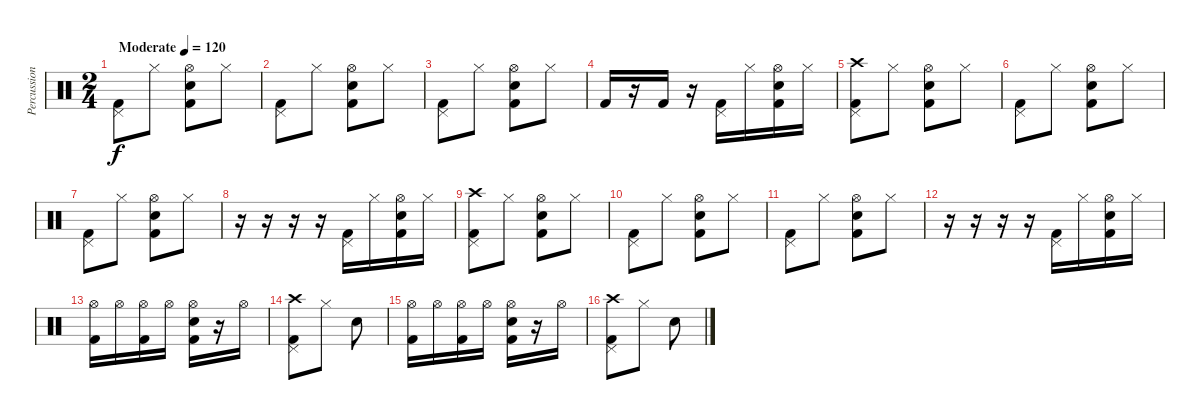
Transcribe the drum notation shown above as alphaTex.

\track ("Percussion" "Percussion") {instrument percussion}
\staff {score}
\articulation defaults
\ts (2 4)
\tempo (120 "Moderate")
\clef neutral
\ks c
("Pedal Hi-Hat (hit)" "Kick (hit) 2").8{dy f} "Hi-Hat (closed)".8 ("Electric Snare (hit)" "Hi-Hat (open)" "Kick (hit) 2").8 "Hi-Hat (closed)".8 |
("Pedal Hi-Hat (hit)" "Kick (hit) 2").8 "Hi-Hat (closed)".8 ("Electric Snare (hit)" "Hi-Hat (open)" "Kick (hit) 2").8 "Hi-Hat (closed)".8 |
("Pedal Hi-Hat (hit)" "Kick (hit) 2").8 "Hi-Hat (closed)".8 ("Electric Snare (hit)" "Hi-Hat (open)" "Kick (hit) 2").8 "Hi-Hat (closed)".8 |
"Kick (hit) 2".16 r.16 "Kick (hit) 2".16 r.16 ("Pedal Hi-Hat (hit)" "Kick (hit) 2").16 "Hi-Hat (closed)".16 ("Electric Snare (hit)" "Hi-Hat (open)" "Kick (hit) 2").16 "Hi-Hat (closed)".16 |
("Crash high (hit)" "Pedal Hi-Hat (hit)" "Kick (hit) 2").8 "Hi-Hat (closed)".8 ("Electric Snare (hit)" "Hi-Hat (open)" "Kick (hit) 2").8 "Hi-Hat (closed)".8 |
("Pedal Hi-Hat (hit)" "Kick (hit) 2").8 "Hi-Hat (closed)".8 ("Electric Snare (hit)" "Hi-Hat (open)" "Kick (hit) 2").8 "Hi-Hat (closed)".8 |
("Pedal Hi-Hat (hit)" "Kick (hit) 2").8 "Hi-Hat (closed)".8 ("Electric Snare (hit)" "Hi-Hat (open)" "Kick (hit) 2").8 "Hi-Hat (closed)".8 |
r.16 r.16 r.16 r.16 ("Pedal Hi-Hat (hit)" "Kick (hit) 2").16 "Hi-Hat (closed)".16 ("Electric Snare (hit)" "Hi-Hat (open)" "Kick (hit) 2").16 "Hi-Hat (closed)".16 |
("Crash high (hit)" "Pedal Hi-Hat (hit)" "Kick (hit) 2").8 "Hi-Hat (closed)".8 ("Electric Snare (hit)" "Hi-Hat (open)" "Kick (hit) 2").8 "Hi-Hat (closed)".8 |
("Pedal Hi-Hat (hit)" "Kick (hit) 2").8 "Hi-Hat (closed)".8 ("Electric Snare (hit)" "Hi-Hat (open)" "Kick (hit) 2").8 "Hi-Hat (closed)".8 |
("Pedal Hi-Hat (hit)" "Kick (hit) 2").8 "Hi-Hat (closed)".8 ("Electric Snare (hit)" "Hi-Hat (open)" "Kick (hit) 2").8 "Hi-Hat (closed)".8 |
r.16 r.16 r.16 r.16 ("Pedal Hi-Hat (hit)" "Kick (hit) 2").16 "Hi-Hat (closed)".16 ("Electric Snare (hit)" "Hi-Hat (open)" "Kick (hit) 2").16 "Hi-Hat (closed)".16 |
("Kick (hit) 2" "Hi-Hat (open)").16 "Hi-Hat (open)".16 ("Kick (hit) 2" "Hi-Hat (open)").16 "Hi-Hat (open)".16 ("Electric Snare (hit)" "Kick (hit) 2" "Hi-Hat (open)").16 r.16 "Hi-Hat (open)".16 |
("Crash high (hit)" "Pedal Hi-Hat (hit)" "Kick (hit) 2").8 "Hi-Hat (closed)".8 "Electric Snare (hit)".8 |
("Kick (hit) 2" "Hi-Hat (open)").16 "Hi-Hat (open)".16 ("Kick (hit) 2" "Hi-Hat (open)").16 "Hi-Hat (open)".16 ("Electric Snare (hit)" "Kick (hit) 2" "Hi-Hat (open)").16 r.16 "Hi-Hat (open)".16 |
("Crash high (hit)" "Pedal Hi-Hat (hit)" "Kick (hit) 2").8 "Hi-Hat (closed)".8 "Electric Snare (hit)".8
